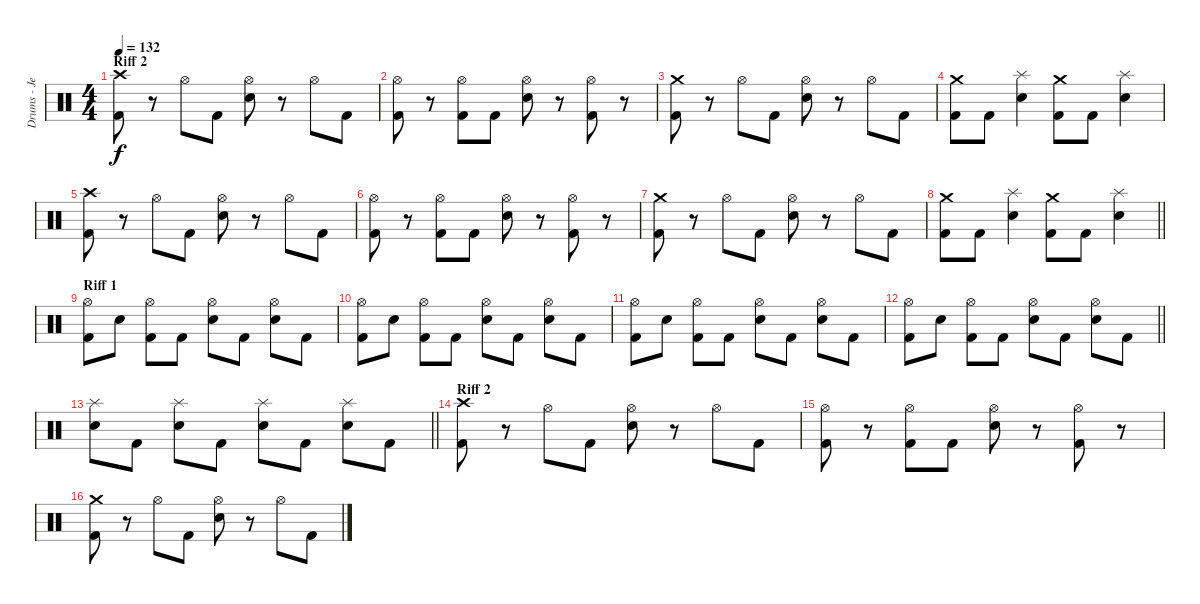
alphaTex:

\track ("Drums - Jess Margera" "Drums - Je") {instrument percussion}
\staff {score}
\articulation defaults
\ts (4 4)
\section ("" "Riff 2")
\tempo 132
\clef neutral
\ks c
("Crash high (hit)" "Kick (hit) 2").8{dy f} r.8 "Hi-Hat (open)".8 "Kick (hit) 2".8 ("Hi-Hat (open)" "Electric Snare (hit)").8 r.8 "Hi-Hat (open)".8 "Kick (hit) 2".8 |
("Hi-Hat (open)" "Kick (hit) 2").8 r.8 ("Hi-Hat (open)" "Kick (hit) 2").8 "Kick (hit) 2".8 ("Hi-Hat (open)" "Electric Snare (hit)").8 r.8 ("Hi-Hat (open)" "Kick (hit) 2").8 r.8 |
("Crash medium (hit)" "Kick (hit) 2").8 r.8 "Hi-Hat (open)".8 "Kick (hit) 2".8 ("Hi-Hat (open)" "Electric Snare (hit)").8 r.8 "Hi-Hat (open)".8 "Kick (hit) 2".8 |
("Crash medium (hit)" "Kick (hit) 2").8 "Kick (hit) 2".8 ("Splash (hit)" "Electric Snare (hit)").4 ("Crash medium (hit)" "Kick (hit) 2").8 "Kick (hit) 2".8 ("Splash (hit)" "Electric Snare (hit)").4 |
("Crash high (hit)" "Kick (hit) 2").8 r.8 "Hi-Hat (open)".8 "Kick (hit) 2".8 ("Hi-Hat (open)" "Electric Snare (hit)").8 r.8 "Hi-Hat (open)".8 "Kick (hit) 2".8 |
("Hi-Hat (open)" "Kick (hit) 2").8 r.8 ("Hi-Hat (open)" "Kick (hit) 2").8 "Kick (hit) 2".8 ("Hi-Hat (open)" "Electric Snare (hit)").8 r.8 ("Hi-Hat (open)" "Kick (hit) 2").8 r.8 |
("Crash medium (hit)" "Kick (hit) 2").8 r.8 "Hi-Hat (open)".8 "Kick (hit) 2".8 ("Hi-Hat (open)" "Electric Snare (hit)").8 r.8 "Hi-Hat (open)".8 "Kick (hit) 2".8 |
\barLineRight lightlight
("Crash medium (hit)" "Kick (hit) 2").8 "Kick (hit) 2".8 ("Splash (hit)" "Electric Snare (hit)").4 ("Crash medium (hit)" "Kick (hit) 2").8 "Kick (hit) 2".8 ("Splash (hit)" "Electric Snare (hit)").4 |
\section ("" "Riff 1")
("Hi-Hat (open)" "Kick (hit) 2").8 "Electric Snare (hit)".8 ("Hi-Hat (open)" "Kick (hit) 2").8 "Kick (hit) 2".8 ("Hi-Hat (open)" "Electric Snare (hit)").8 "Kick (hit) 2".8 ("Hi-Hat (open)" "Electric Snare (hit)").8 "Kick (hit) 2".8 |
("Hi-Hat (open)" "Kick (hit) 2").8 "Electric Snare (hit)".8 ("Hi-Hat (open)" "Kick (hit) 2").8 "Kick (hit) 2".8 ("Hi-Hat (open)" "Electric Snare (hit)").8 "Kick (hit) 2".8 ("Hi-Hat (open)" "Electric Snare (hit)").8 "Kick (hit) 2".8 |
("Hi-Hat (open)" "Kick (hit) 2").8 "Electric Snare (hit)".8 ("Hi-Hat (open)" "Kick (hit) 2").8 "Kick (hit) 2".8 ("Hi-Hat (open)" "Electric Snare (hit)").8 "Kick (hit) 2".8 ("Hi-Hat (open)" "Electric Snare (hit)").8 "Kick (hit) 2".8 |
\barLineRight lightlight
("Hi-Hat (open)" "Kick (hit) 2").8 "Electric Snare (hit)".8 ("Hi-Hat (open)" "Kick (hit) 2").8 "Kick (hit) 2".8 ("Hi-Hat (open)" "Electric Snare (hit)").8 "Kick (hit) 2".8 ("Hi-Hat (open)" "Electric Snare (hit)").8 "Kick (hit) 2".8 |
\barLineRight lightlight
("Splash (hit)" "Electric Snare (hit)").8 "Kick (hit) 2".8 ("Splash (hit)" "Electric Snare (hit)").8 "Kick (hit) 2".8 ("Splash (hit)" "Electric Snare (hit)").8 "Kick (hit) 2".8 ("Splash (hit)" "Electric Snare (hit)").8 "Kick (hit) 2".8 |
\section ("" "Riff 2")
("Crash high (hit)" "Kick (hit) 2").8 r.8 "Hi-Hat (open)".8 "Kick (hit) 2".8 ("Hi-Hat (open)" "Electric Snare (hit)").8 r.8 "Hi-Hat (open)".8 "Kick (hit) 2".8 |
("Hi-Hat (open)" "Kick (hit) 2").8 r.8 ("Hi-Hat (open)" "Kick (hit) 2").8 "Kick (hit) 2".8 ("Hi-Hat (open)" "Electric Snare (hit)").8 r.8 ("Hi-Hat (open)" "Kick (hit) 2").8 r.8 |
("Crash medium (hit)" "Kick (hit) 2").8 r.8 "Hi-Hat (open)".8 "Kick (hit) 2".8 ("Hi-Hat (open)" "Electric Snare (hit)").8 r.8 "Hi-Hat (open)".8 "Kick (hit) 2".8
